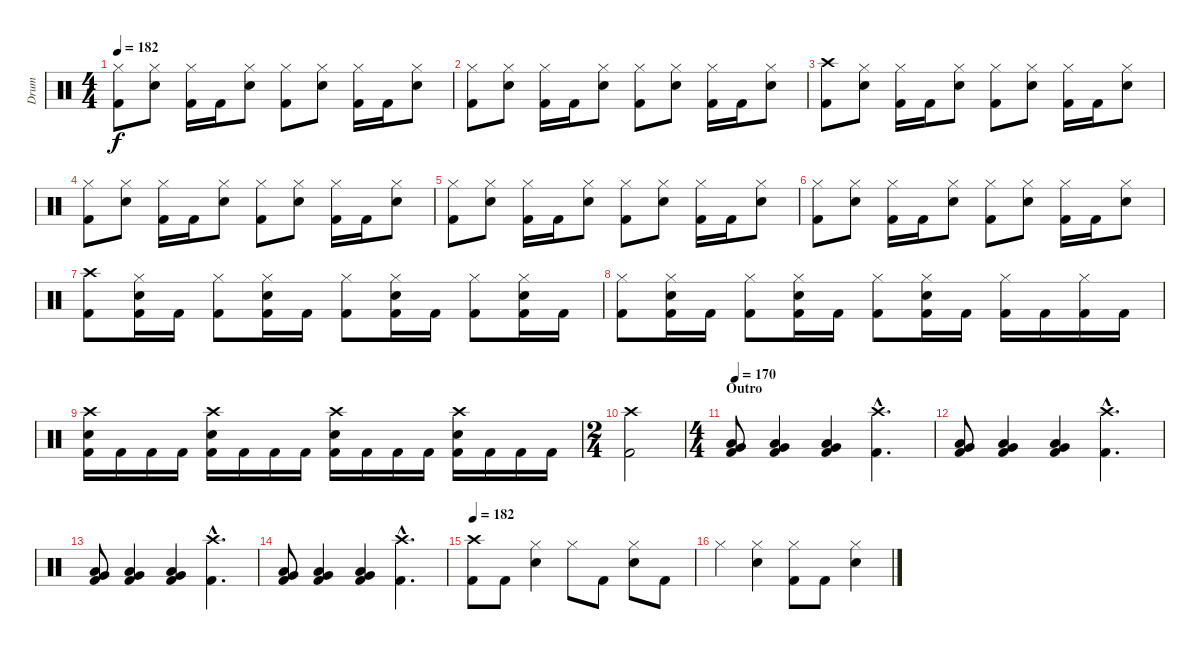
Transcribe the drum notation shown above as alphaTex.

\track ("Drum" "Drum") {instrument percussion}
\staff {score}
\articulation defaults
\ts (4 4)
\tempo 182
\clef neutral
\ks c
("Hi-Hat (closed)" "Kick (hit) 2").8{dy f} ("Hi-Hat (closed)" "Electric Snare (hit)").8 ("Hi-Hat (closed)" "Kick (hit) 2").16 "Kick (hit) 2".16 ("Hi-Hat (closed)" "Electric Snare (hit)").8 ("Hi-Hat (closed)" "Kick (hit) 2").8 ("Hi-Hat (closed)" "Electric Snare (hit)").8 ("Hi-Hat (closed)" "Kick (hit) 2").16 "Kick (hit) 2".16 ("Hi-Hat (closed)" "Electric Snare (hit)").8 |
("Hi-Hat (closed)" "Kick (hit) 2").8 ("Hi-Hat (closed)" "Electric Snare (hit)").8 ("Hi-Hat (closed)" "Kick (hit) 2").16 "Kick (hit) 2".16 ("Hi-Hat (closed)" "Electric Snare (hit)").8 ("Hi-Hat (closed)" "Kick (hit) 2").8 ("Hi-Hat (closed)" "Electric Snare (hit)").8 ("Hi-Hat (closed)" "Kick (hit) 2").16 "Kick (hit) 2".16 ("Hi-Hat (closed)" "Electric Snare (hit)").8 |
("Crash high (hit)" "Kick (hit) 2").8 ("Hi-Hat (closed)" "Electric Snare (hit)").8 ("Hi-Hat (closed)" "Kick (hit) 2").16 "Kick (hit) 2".16 ("Hi-Hat (closed)" "Electric Snare (hit)").8 ("Hi-Hat (closed)" "Kick (hit) 2").8 ("Hi-Hat (closed)" "Electric Snare (hit)").8 ("Hi-Hat (closed)" "Kick (hit) 2").16 "Kick (hit) 2".16 ("Hi-Hat (closed)" "Electric Snare (hit)").8 |
("Hi-Hat (closed)" "Kick (hit) 2").8 ("Hi-Hat (closed)" "Electric Snare (hit)").8 ("Hi-Hat (closed)" "Kick (hit) 2").16 "Kick (hit) 2".16 ("Hi-Hat (closed)" "Electric Snare (hit)").8 ("Hi-Hat (closed)" "Kick (hit) 2").8 ("Hi-Hat (closed)" "Electric Snare (hit)").8 ("Hi-Hat (closed)" "Kick (hit) 2").16 "Kick (hit) 2".16 ("Hi-Hat (closed)" "Electric Snare (hit)").8 |
("Hi-Hat (closed)" "Kick (hit) 2").8 ("Hi-Hat (closed)" "Electric Snare (hit)").8 ("Hi-Hat (closed)" "Kick (hit) 2").16 "Kick (hit) 2".16 ("Hi-Hat (closed)" "Electric Snare (hit)").8 ("Hi-Hat (closed)" "Kick (hit) 2").8 ("Hi-Hat (closed)" "Electric Snare (hit)").8 ("Hi-Hat (closed)" "Kick (hit) 2").16 "Kick (hit) 2".16 ("Hi-Hat (closed)" "Electric Snare (hit)").8 |
("Hi-Hat (closed)" "Kick (hit) 2").8 ("Hi-Hat (closed)" "Electric Snare (hit)").8 ("Hi-Hat (closed)" "Kick (hit) 2").16 "Kick (hit) 2".16 ("Hi-Hat (closed)" "Electric Snare (hit)").8 ("Hi-Hat (closed)" "Kick (hit) 2").8 ("Hi-Hat (closed)" "Electric Snare (hit)").8 ("Hi-Hat (closed)" "Kick (hit) 2").16 "Kick (hit) 2".16 ("Hi-Hat (closed)" "Electric Snare (hit)").8 |
("Crash high (hit)" "Kick (hit) 2").8 ("Hi-Hat (closed)" "Electric Snare (hit)" "Kick (hit) 2").16 "Kick (hit) 2".16 ("Hi-Hat (closed)" "Kick (hit) 2").8 ("Hi-Hat (closed)" "Electric Snare (hit)" "Kick (hit) 2").16 "Kick (hit) 2".16 ("Hi-Hat (closed)" "Kick (hit) 2").8 ("Hi-Hat (closed)" "Electric Snare (hit)" "Kick (hit) 2").16 "Kick (hit) 2".16 ("Hi-Hat (closed)" "Kick (hit) 2").8 ("Hi-Hat (closed)" "Electric Snare (hit)" "Kick (hit) 2").16 "Kick (hit) 2".16 |
("Hi-Hat (closed)" "Kick (hit) 2").8 ("Hi-Hat (closed)" "Electric Snare (hit)" "Kick (hit) 2").16 "Kick (hit) 2".16 ("Hi-Hat (closed)" "Kick (hit) 2").8 ("Hi-Hat (closed)" "Electric Snare (hit)" "Kick (hit) 2").16 "Kick (hit) 2".16 ("Hi-Hat (closed)" "Kick (hit) 2").8 ("Hi-Hat (closed)" "Electric Snare (hit)" "Kick (hit) 2").16 "Kick (hit) 2".16 ("Hi-Hat (closed)" "Kick (hit) 2").16 "Kick (hit) 2".16 ("Hi-Hat (closed)" "Kick (hit) 2").16 "Kick (hit) 2".16 |
("Crash high (hit)" "Electric Snare (hit)" "Kick (hit) 2").16 "Kick (hit) 2".16 "Kick (hit) 2".16 "Kick (hit) 2".16 ("Crash high (hit)" "Electric Snare (hit)" "Kick (hit) 2").16 "Kick (hit) 2".16 "Kick (hit) 2".16 "Kick (hit) 2".16 ("Crash high (hit)" "Electric Snare (hit)" "Kick (hit) 2").16 "Kick (hit) 2".16 "Kick (hit) 2".16 "Kick (hit) 2".16 ("Crash high (hit)" "Electric Snare (hit)" "Kick (hit) 2").16 "Kick (hit) 2".16 "Kick (hit) 2".16 "Kick (hit) 2".16 |
\ts (2 4)
("Crash high (hit)" "Kick (hit) 2").2 |
\ts (4 4)
\section ("" "Outro")
\tempo 170
("Very Low Tom (hit)" "Low Tom (hit)" "Kick (hit) 2").8 ("Very Low Tom (hit)" "Low Tom (hit)" "Kick (hit) 2").4 ("Very Low Tom (hit)" "Low Tom (hit)" "Kick (hit) 2").4 ("Crash high (hit)"{hac} "Kick (hit) 2"{hac}).4{d} |
("Very Low Tom (hit)" "Low Tom (hit)" "Kick (hit) 2").8 ("Very Low Tom (hit)" "Low Tom (hit)" "Kick (hit) 2").4 ("Very Low Tom (hit)" "Low Tom (hit)" "Kick (hit) 2").4 ("Crash high (hit)"{hac} "Kick (hit) 2"{hac}).4{d} |
("Very Low Tom (hit)" "Low Tom (hit)" "Kick (hit) 2").8 ("Very Low Tom (hit)" "Low Tom (hit)" "Kick (hit) 2").4 ("Very Low Tom (hit)" "Low Tom (hit)" "Kick (hit) 2").4 ("Crash high (hit)"{hac} "Kick (hit) 2"{hac}).4{d} |
("Very Low Tom (hit)" "Low Tom (hit)" "Kick (hit) 2").8 ("Very Low Tom (hit)" "Low Tom (hit)" "Kick (hit) 2").4 ("Very Low Tom (hit)" "Low Tom (hit)" "Kick (hit) 2").4 ("Crash high (hit)"{hac} "Kick (hit) 2"{hac}).4{d} |
\tempo 182
("Crash high (hit)" "Kick (hit) 2").8 "Kick (hit) 2".8 ("Hi-Hat (closed)" "Electric Snare (hit)").4 "Hi-Hat (closed)".8 "Kick (hit) 2".8 ("Hi-Hat (closed)" "Electric Snare (hit)").8 "Kick (hit) 2".8 |
"Hi-Hat (closed)".4 ("Hi-Hat (closed)" "Electric Snare (hit)").4 ("Hi-Hat (closed)" "Kick (hit) 2").8 "Kick (hit) 2".8 ("Hi-Hat (closed)" "Electric Snare (hit)").4
